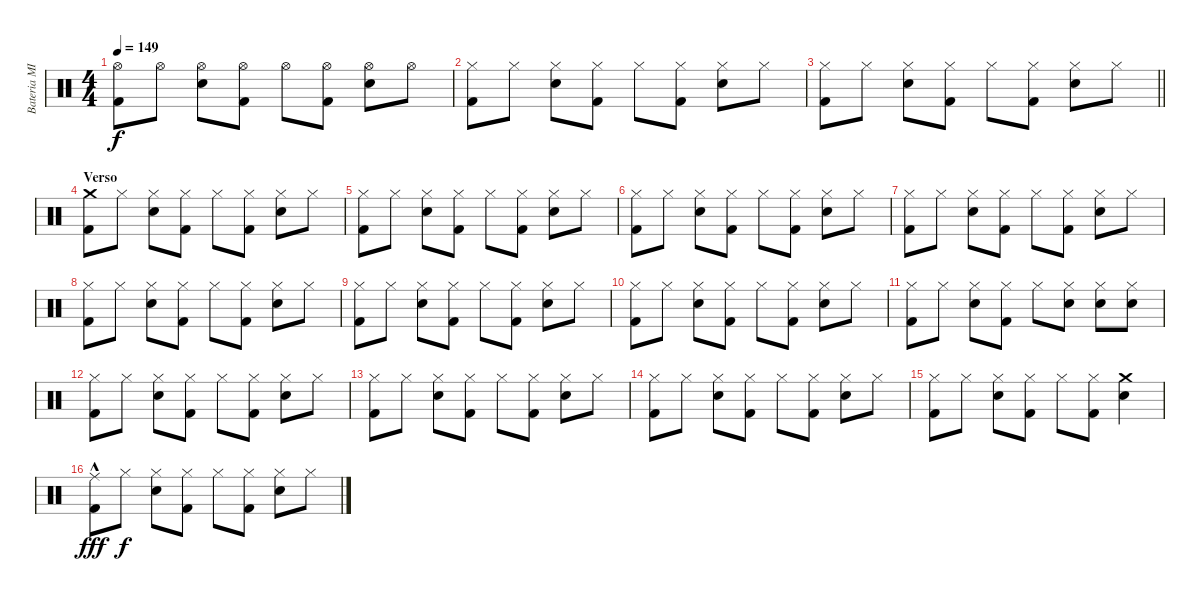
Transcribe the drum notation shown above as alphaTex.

\track ("Bateria MIDI" "Bateria MI") {instrument percussion}
\staff {score}
\articulation defaults
\ts (4 4)
\tempo 149
\clef neutral
\ks c
("Hi-Hat (open)" "Kick (hit) 2").8{dy f} "Hi-Hat (open)".8 ("Hi-Hat (open)" "Snare (hit) 2").8 ("Hi-Hat (open)" "Kick (hit) 2").8 "Hi-Hat (open)".8 ("Hi-Hat (open)" "Kick (hit) 2").8 ("Hi-Hat (open)" "Snare (hit) 2").8 "Hi-Hat (open)".8 |
("Hi-Hat (closed)" "Kick (hit) 2").8 "Hi-Hat (closed)".8 ("Hi-Hat (closed)" "Snare (hit) 2").8 ("Hi-Hat (closed)" "Kick (hit) 2").8 "Hi-Hat (closed)".8 ("Hi-Hat (closed)" "Kick (hit) 2").8 ("Hi-Hat (closed)" "Snare (hit) 2").8 "Hi-Hat (closed)".8 |
\barLineRight lightlight
("Hi-Hat (closed)" "Kick (hit) 2").8 "Hi-Hat (closed)".8 ("Hi-Hat (closed)" "Snare (hit) 2").8 ("Hi-Hat (closed)" "Kick (hit) 2").8 "Hi-Hat (closed)".8 ("Hi-Hat (closed)" "Kick (hit) 2").8 ("Hi-Hat (closed)" "Snare (hit) 2").8 "Hi-Hat (closed)".8 |
\section ("" "Verso")
("Crash medium (hit)" "Kick (hit) 2").8 "Hi-Hat (closed)".8 ("Hi-Hat (closed)" "Snare (hit) 2").8 ("Hi-Hat (closed)" "Kick (hit) 2").8 "Hi-Hat (closed)".8 ("Hi-Hat (closed)" "Kick (hit) 2").8 ("Hi-Hat (closed)" "Snare (hit) 2").8 "Hi-Hat (closed)".8 |
("Hi-Hat (closed)" "Kick (hit) 2").8 "Hi-Hat (closed)".8 ("Hi-Hat (closed)" "Snare (hit) 2").8 ("Hi-Hat (closed)" "Kick (hit) 2").8 "Hi-Hat (closed)".8 ("Hi-Hat (closed)" "Kick (hit) 2").8 ("Hi-Hat (closed)" "Snare (hit) 2").8 "Hi-Hat (closed)".8 |
("Hi-Hat (closed)" "Kick (hit) 2").8 "Hi-Hat (closed)".8 ("Hi-Hat (closed)" "Snare (hit) 2").8 ("Hi-Hat (closed)" "Kick (hit) 2").8 "Hi-Hat (closed)".8 ("Hi-Hat (closed)" "Kick (hit) 2").8 ("Hi-Hat (closed)" "Snare (hit) 2").8 "Hi-Hat (closed)".8 |
("Hi-Hat (closed)" "Kick (hit) 2").8 "Hi-Hat (closed)".8 ("Hi-Hat (closed)" "Snare (hit) 2").8 ("Hi-Hat (closed)" "Kick (hit) 2").8 "Hi-Hat (closed)".8 ("Hi-Hat (closed)" "Kick (hit) 2").8 ("Hi-Hat (closed)" "Snare (hit) 2").8 "Hi-Hat (closed)".8 |
("Hi-Hat (closed)" "Kick (hit) 2").8 "Hi-Hat (closed)".8 ("Hi-Hat (closed)" "Snare (hit) 2").8 ("Hi-Hat (closed)" "Kick (hit) 2").8 "Hi-Hat (closed)".8 ("Hi-Hat (closed)" "Kick (hit) 2").8 ("Hi-Hat (closed)" "Snare (hit) 2").8 "Hi-Hat (closed)".8 |
("Hi-Hat (closed)" "Kick (hit) 2").8 "Hi-Hat (closed)".8 ("Hi-Hat (closed)" "Snare (hit) 2").8 ("Hi-Hat (closed)" "Kick (hit) 2").8 "Hi-Hat (closed)".8 ("Hi-Hat (closed)" "Kick (hit) 2").8 ("Hi-Hat (closed)" "Snare (hit) 2").8 "Hi-Hat (closed)".8 |
("Hi-Hat (closed)" "Kick (hit) 2").8 "Hi-Hat (closed)".8 ("Hi-Hat (closed)" "Snare (hit) 2").8 ("Hi-Hat (closed)" "Kick (hit) 2").8 "Hi-Hat (closed)".8 ("Hi-Hat (closed)" "Kick (hit) 2").8 ("Hi-Hat (closed)" "Snare (hit) 2").8 "Hi-Hat (closed)".8 |
("Hi-Hat (closed)" "Kick (hit) 2").8 "Hi-Hat (closed)".8 ("Hi-Hat (closed)" "Snare (hit) 2").8 ("Hi-Hat (closed)" "Kick (hit) 2").8 "Hi-Hat (closed)".8 ("Hi-Hat (closed)" "Snare (hit) 2").8 ("Hi-Hat (closed)" "Snare (hit) 2").8 ("Hi-Hat (closed)" "Snare (hit) 2").8 |
("Hi-Hat (closed)" "Kick (hit) 2").8 "Hi-Hat (closed)".8 ("Hi-Hat (closed)" "Snare (hit) 2").8 ("Hi-Hat (closed)" "Kick (hit) 2").8 "Hi-Hat (closed)".8 ("Hi-Hat (closed)" "Kick (hit) 2").8 ("Hi-Hat (closed)" "Snare (hit) 2").8 "Hi-Hat (closed)".8 |
("Hi-Hat (closed)" "Kick (hit) 2").8 "Hi-Hat (closed)".8 ("Hi-Hat (closed)" "Snare (hit) 2").8 ("Hi-Hat (closed)" "Kick (hit) 2").8 "Hi-Hat (closed)".8 ("Hi-Hat (closed)" "Kick (hit) 2").8 ("Hi-Hat (closed)" "Snare (hit) 2").8 "Hi-Hat (closed)".8 |
("Hi-Hat (closed)" "Kick (hit) 2").8 "Hi-Hat (closed)".8 ("Hi-Hat (closed)" "Snare (hit) 2").8 ("Hi-Hat (closed)" "Kick (hit) 2").8 "Hi-Hat (closed)".8 ("Hi-Hat (closed)" "Kick (hit) 2").8 ("Hi-Hat (closed)" "Snare (hit) 2").8 "Hi-Hat (closed)".8 |
("Hi-Hat (closed)" "Kick (hit) 2").8 "Hi-Hat (closed)".8 ("Hi-Hat (closed)" "Snare (hit) 2").8 ("Hi-Hat (closed)" "Kick (hit) 2").8 "Hi-Hat (closed)".8 ("Hi-Hat (closed)" "Kick (hit) 2").8 ("Crash medium (hit)" "Snare (hit) 2").4 |
("Ride (middle)"{hac} "Kick (hit) 2").8{dy fff} "Hi-Hat (closed)".8{dy f} ("Hi-Hat (closed)" "Snare (hit) 2").8 ("Hi-Hat (closed)" "Kick (hit) 2").8 "Hi-Hat (closed)".8 ("Hi-Hat (closed)" "Kick (hit) 2").8 ("Hi-Hat (closed)" "Snare (hit) 2").8 "Hi-Hat (closed)".8
